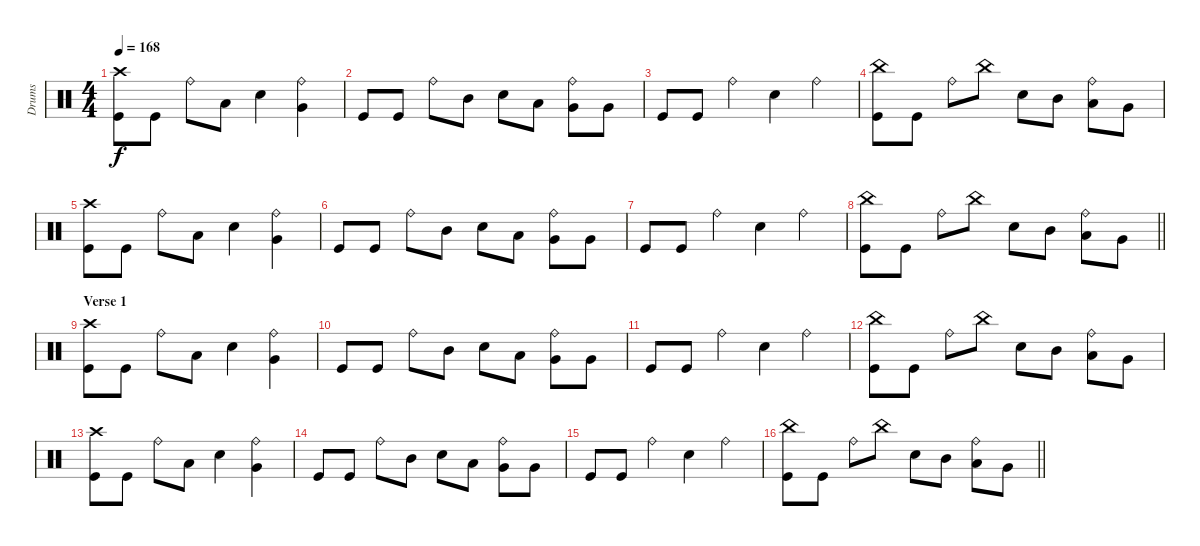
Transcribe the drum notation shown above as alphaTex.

\track ("Drums" "Drums") {instrument percussion}
\staff {score}
\articulation defaults
\ts (4 4)
\tempo 168
\clef neutral
\ks c
("Crash high (hit)" "Kick (hit)").8{dy f} "Kick (hit)".8 "Ride (bell)".8 "Low Tom (hit)".8 "Electric Snare (hit)".4 ("Ride (bell)" "Very Low Tom (hit)").4 |
"Kick (hit)".8 "Kick (hit)".8 "Ride (bell)".8 "Mid Tom (hit)".8 "Electric Snare (hit)".8 "Low Tom (hit)".8 ("Ride (bell)" "Very Low Tom (hit)").8 "Very Low Tom (hit)".8 |
"Kick (hit)".8 "Kick (hit)".8 "Ride (bell)".4 "Electric Snare (hit)".4 "Ride (bell)".4 |
("China (hit)" "Kick (hit)").8 "Kick (hit)".8 "Ride (bell)".8 "China (hit)".8 "Electric Snare (hit)".8 "Mid Tom (hit)".8 ("Ride (bell)" "Low Tom (hit)").8 "Very Low Tom (hit)".8 |
("Crash high (hit)" "Kick (hit)").8 "Kick (hit)".8 "Ride (bell)".8 "Low Tom (hit)".8 "Electric Snare (hit)".4 ("Ride (bell)" "Very Low Tom (hit)").4 |
"Kick (hit)".8 "Kick (hit)".8 "Ride (bell)".8 "Mid Tom (hit)".8 "Electric Snare (hit)".8 "Low Tom (hit)".8 ("Ride (bell)" "Very Low Tom (hit)").8 "Very Low Tom (hit)".8 |
"Kick (hit)".8 "Kick (hit)".8 "Ride (bell)".4 "Electric Snare (hit)".4 "Ride (bell)".4 |
\barLineRight lightlight
("China (hit)" "Kick (hit)").8 "Kick (hit)".8 "Ride (bell)".8 "China (hit)".8 "Electric Snare (hit)".8 "Mid Tom (hit)".8 ("Ride (bell)" "Low Tom (hit)").8 "Very Low Tom (hit)".8 |
\section ("" "Verse 1")
("Crash high (hit)" "Kick (hit)").8 "Kick (hit)".8 "Ride (bell)".8 "Low Tom (hit)".8 "Electric Snare (hit)".4 ("Ride (bell)" "Very Low Tom (hit)").4 |
"Kick (hit)".8 "Kick (hit)".8 "Ride (bell)".8 "Mid Tom (hit)".8 "Electric Snare (hit)".8 "Low Tom (hit)".8 ("Ride (bell)" "Very Low Tom (hit)").8 "Very Low Tom (hit)".8 |
"Kick (hit)".8 "Kick (hit)".8 "Ride (bell)".4 "Electric Snare (hit)".4 "Ride (bell)".4 |
("China (hit)" "Kick (hit)").8 "Kick (hit)".8 "Ride (bell)".8 "China (hit)".8 "Electric Snare (hit)".8 "Mid Tom (hit)".8 ("Ride (bell)" "Low Tom (hit)").8 "Very Low Tom (hit)".8 |
("Crash high (hit)" "Kick (hit)").8 "Kick (hit)".8 "Ride (bell)".8 "Low Tom (hit)".8 "Electric Snare (hit)".4 ("Ride (bell)" "Very Low Tom (hit)").4 |
"Kick (hit)".8 "Kick (hit)".8 "Ride (bell)".8 "Mid Tom (hit)".8 "Electric Snare (hit)".8 "Low Tom (hit)".8 ("Ride (bell)" "Very Low Tom (hit)").8 "Very Low Tom (hit)".8 |
"Kick (hit)".8 "Kick (hit)".8 "Ride (bell)".4 "Electric Snare (hit)".4 "Ride (bell)".4 |
\barLineRight lightlight
("China (hit)" "Kick (hit)").8 "Kick (hit)".8 "Ride (bell)".8 "China (hit)".8 "Electric Snare (hit)".8 "Mid Tom (hit)".8 ("Ride (bell)" "Low Tom (hit)").8 "Very Low Tom (hit)".8
